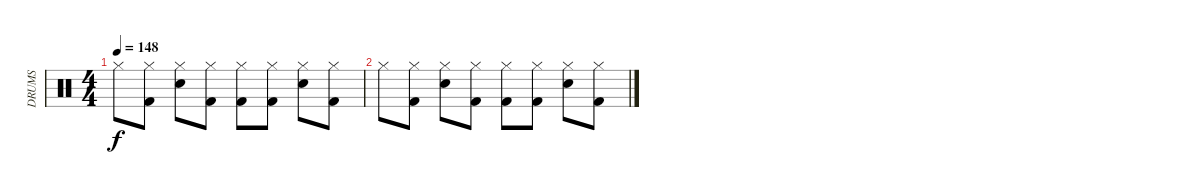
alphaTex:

\track ("DRUMS" "DRUMS") {instrument percussion}
\staff {score}
\articulation defaults
\ts (4 4)
\tempo 148
\clef neutral
\ks c "Hi-Hat (closed)".8{dy f}
("Hi-Hat (closed)" "Kick (hit) 2").8 ("Hi-Hat (closed)" "Snare (hit) 2").8 ("Hi-Hat (closed)" "Kick (hit) 2").8 ("Hi-Hat (closed)" "Kick (hit) 2").8 ("Hi-Hat (closed)" "Kick (hit) 2").8 ("Hi-Hat (closed)" "Snare (hit) 2").8 ("Hi-Hat (closed)" "Kick (hit) 2").8 |
"Hi-Hat (closed)".8 ("Hi-Hat (closed)" "Kick (hit) 2").8 ("Hi-Hat (closed)" "Snare (hit) 2").8 ("Hi-Hat (closed)" "Kick (hit) 2").8 ("Hi-Hat (closed)" "Kick (hit) 2").8 ("Hi-Hat (closed)" "Kick (hit) 2").8 ("Hi-Hat (closed)" "Snare (hit) 2").8 ("Hi-Hat (closed)" "Kick (hit) 2").8
